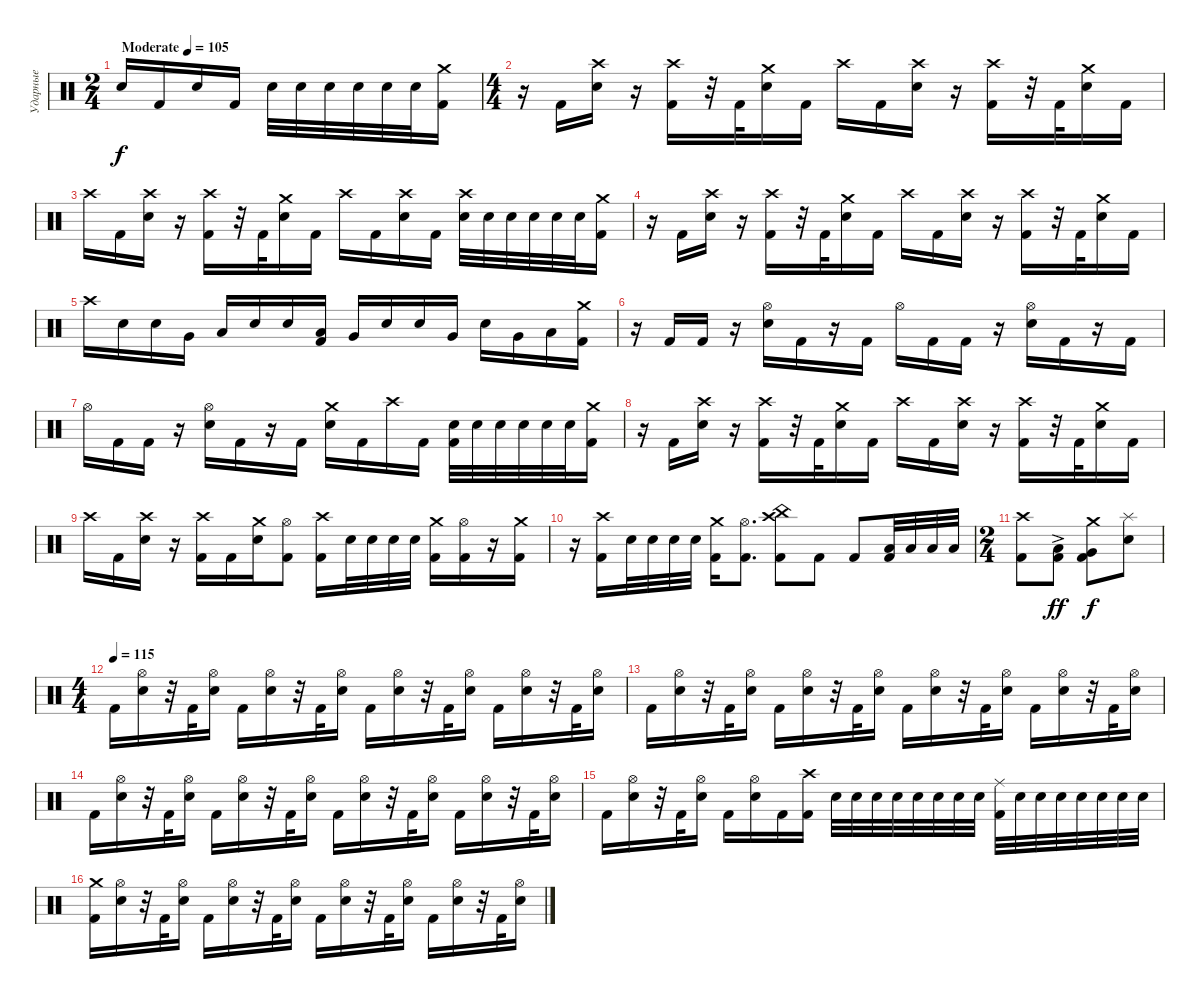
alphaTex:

\track ("Ударные" "Ударные") {instrument percussion}
\staff {score}
\articulation defaults
\ts (2 4)
\tempo (105 "Moderate")
\clef neutral
\ks c "Electric Snare (hit)".16{dy f} "Kick (hit) 2".16 "Electric Snare (hit)".16 "Kick (hit) 2".16 "Electric Snare (hit)".32 "Electric Snare (hit)".32 "Electric Snare (hit)".32 "Electric Snare (hit)".32 "Electric Snare (hit)".32 "Electric Snare (hit)".32
("Crash medium (hit)" "Kick (hit) 2").16 |
\ts (4 4)
r.16 "Kick (hit) 2".16 ("Crash high (hit)" "Electric Snare (hit)").16 r.16 ("Crash high (hit)" "Kick (hit) 2").16 r.32 "Kick (hit) 2".32 ("Crash medium (hit)" "Electric Snare (hit)").16 "Kick (hit) 2".16 "Crash high (hit)".16 "Kick (hit) 2".16 ("Crash high (hit)" "Electric Snare (hit)").16 r.16 ("Crash high (hit)" "Kick (hit) 2").16 r.32 "Kick (hit) 2".32 ("Crash medium (hit)" "Electric Snare (hit)").16 "Kick (hit) 2".16 |
"Crash high (hit)".16 "Kick (hit) 2".16 ("Crash high (hit)" "Electric Snare (hit)").16 r.16 ("Crash high (hit)" "Kick (hit) 2").16 r.32 "Kick (hit) 2".32 ("Crash medium (hit)" "Electric Snare (hit)").16 "Kick (hit) 2".16 "Crash high (hit)".16 "Kick (hit) 2".16 ("Crash high (hit)" "Electric Snare (hit)").16 "Kick (hit) 2".16 ("Crash high (hit)" "Electric Snare (hit)").32 "Electric Snare (hit)".32 "Electric Snare (hit)".32 "Electric Snare (hit)".32 "Electric Snare (hit)".32 "Electric Snare (hit)".32 ("Crash medium (hit)" "Kick (hit) 2").16 |
r.16 "Kick (hit) 2".16 ("Crash high (hit)" "Electric Snare (hit)").16 r.16 ("Crash high (hit)" "Kick (hit) 2").16 r.32 "Kick (hit) 2".32 ("Crash medium (hit)" "Electric Snare (hit)").16 "Kick (hit) 2".16 "Crash high (hit)".16 "Kick (hit) 2".16 ("Crash high (hit)" "Electric Snare (hit)").16 r.16 ("Crash high (hit)" "Kick (hit) 2").16 r.32 "Kick (hit) 2".32 ("Crash medium (hit)" "Electric Snare (hit)").16 "Kick (hit) 2".16 |
"Crash high (hit)".16 "Electric Snare (hit)".16 "Electric Snare (hit)".16 "Very Low Tom (hit)".16 "Low Tom (hit)".16 "Electric Snare (hit)".16 "Electric Snare (hit)".16 ("Low Floor Tom (hit)" "Kick (hit) 2").16 "Very Low Tom (hit)".16 "Electric Snare (hit)".16 "Electric Snare (hit)".16 "Very Low Tom (hit)".16 "Electric Snare (hit)".16 "Very Low Tom (hit)".16 "Low Floor Tom (hit)".16 ("Crash medium (hit)" "Kick (hit) 2").16 |
r.16 "Kick (hit) 2".16 "Kick (hit) 2".16 r.16 ("Hi-Hat (open)" "Electric Snare (hit)").16 "Kick (hit) 2".16 r.16 "Kick (hit) 2".16 "Hi-Hat (open)".16 "Kick (hit) 2".16 "Kick (hit) 2".16 r.16 ("Hi-Hat (open)" "Electric Snare (hit)").16 "Kick (hit) 2".16 r.16 "Kick (hit) 2".16 |
"Hi-Hat (open)".16 "Kick (hit) 2".16 "Kick (hit) 2".16 r.16 ("Hi-Hat (open)" "Electric Snare (hit)").16 "Kick (hit) 2".16 r.16 "Kick (hit) 2".16 ("Crash medium (hit)" "Electric Snare (hit)").16 "Kick (hit) 2".16 "Crash high (hit)".16 "Kick (hit) 2".16 ("Electric Snare (hit)" "Kick (hit) 2").32 "Electric Snare (hit)".32 "Electric Snare (hit)".32 "Electric Snare (hit)".32 "Electric Snare (hit)".32 "Electric Snare (hit)".32 ("Crash medium (hit)" "Kick (hit) 2").16 |
r.16 "Kick (hit) 2".16 ("Crash high (hit)" "Electric Snare (hit)").16 r.16 ("Crash high (hit)" "Kick (hit) 2").16 r.32 "Kick (hit) 2".32 ("Crash medium (hit)" "Electric Snare (hit)").16 "Kick (hit) 2".16 "Crash high (hit)".16 "Kick (hit) 2".16 ("Crash high (hit)" "Electric Snare (hit)").16 r.16 ("Crash high (hit)" "Kick (hit) 2").16 r.32 "Kick (hit) 2".32 ("Crash medium (hit)" "Electric Snare (hit)").16 "Kick (hit) 2".16 |
"Crash high (hit)".16 "Kick (hit) 2".16 ("Crash high (hit)" "Electric Snare (hit)").16 r.16 ("Crash high (hit)" "Kick (hit) 2").16 "Kick (hit) 2".16 ("Crash medium (hit)" "Electric Snare (hit)").16 ("Hi-Hat (open)" "Kick (hit) 2").8 ("Crash high (hit)" "Kick (hit) 2").16 "Electric Snare (hit)".32 "Electric Snare (hit)".32 "Electric Snare (hit)".32 "Electric Snare (hit)".32 ("Crash medium (hit)" "Kick (hit) 2").16 ("Hi-Hat (open)" "Kick (hit) 2").16 r.16 ("Crash medium (hit)" "Kick (hit) 2").16 |
r.16 ("Crash high (hit)" "Kick (hit) 2").16 "Electric Snare (hit)".32 "Electric Snare (hit)".32 "Electric Snare (hit)".32 "Electric Snare (hit)".32 ("Crash medium (hit)" "Kick (hit) 2").16 ("Hi-Hat (open)" "Kick (hit) 2").8{d} ("Crash high (hit)" "China (hit)" "Kick (hit) 2").8 "Kick (hit) 2".8 "Kick (hit) 2".8 ("Low Tom (hit)" "Kick (hit) 2").32 "Low Tom (hit)".32 "Low Tom (hit)".32 "Low Tom (hit)".32 |
\ts (2 4)
("Crash high (hit)" "Kick (hit) 2").8 ("Low Floor Tom (hit)"{ac} "Kick (hit) 2").8{dy ff} ("Crash medium (hit)" "Very Low Tom (hit)" "Kick (hit) 2").8{dy f} ("Splash (hit)" "Electric Snare (hit)").8 |
\ts (4 4)
\tempo (115)
"Kick (hit) 2".16 ("Hi-Hat (open)" "Electric Snare (hit)").16 r.32 "Kick (hit) 2".32 ("Hi-Hat (open)" "Electric Snare (hit)").16 "Kick (hit) 2".16 ("Hi-Hat (open)" "Electric Snare (hit)").16 r.32 "Kick (hit) 2".32 ("Hi-Hat (open)" "Electric Snare (hit)").16 "Kick (hit) 2".16 ("Hi-Hat (open)" "Electric Snare (hit)").16 r.32 "Kick (hit) 2".32 ("Hi-Hat (open)" "Electric Snare (hit)").16 "Kick (hit) 2".16 ("Hi-Hat (open)" "Electric Snare (hit)").16 r.32 "Kick (hit) 2".32 ("Hi-Hat (open)" "Electric Snare (hit)").16 |
"Kick (hit) 2".16 ("Hi-Hat (open)" "Electric Snare (hit)").16 r.32 "Kick (hit) 2".32 ("Hi-Hat (open)" "Electric Snare (hit)").16 "Kick (hit) 2".16 ("Hi-Hat (open)" "Electric Snare (hit)").16 r.32 "Kick (hit) 2".32 ("Hi-Hat (open)" "Electric Snare (hit)").16 "Kick (hit) 2".16 ("Hi-Hat (open)" "Electric Snare (hit)").16 r.32 "Kick (hit) 2".32 ("Hi-Hat (open)" "Electric Snare (hit)").16 "Kick (hit) 2".16 ("Hi-Hat (open)" "Electric Snare (hit)").16 r.32 "Kick (hit) 2".32 ("Hi-Hat (open)" "Electric Snare (hit)").16 |
"Kick (hit) 2".16 ("Hi-Hat (open)" "Electric Snare (hit)").16 r.32 "Kick (hit) 2".32 ("Hi-Hat (open)" "Electric Snare (hit)").16 "Kick (hit) 2".16 ("Hi-Hat (open)" "Electric Snare (hit)").16 r.32 "Kick (hit) 2".32 ("Hi-Hat (open)" "Electric Snare (hit)").16 "Kick (hit) 2".16 ("Hi-Hat (open)" "Electric Snare (hit)").16 r.32 "Kick (hit) 2".32 ("Hi-Hat (open)" "Electric Snare (hit)").16 "Kick (hit) 2".16 ("Hi-Hat (open)" "Electric Snare (hit)").16 r.32 "Kick (hit) 2".32 ("Hi-Hat (open)" "Electric Snare (hit)").16 |
"Kick (hit) 2".16 ("Hi-Hat (open)" "Electric Snare (hit)").16 r.32 "Kick (hit) 2".32 ("Hi-Hat (open)" "Electric Snare (hit)").16 "Kick (hit) 2".16 ("Hi-Hat (open)" "Electric Snare (hit)").16 "Kick (hit) 2".16 ("Crash high (hit)" "Kick (hit) 2").16 "Electric Snare (hit)".32 "Electric Snare (hit)".32 "Electric Snare (hit)".32 "Electric Snare (hit)".32 "Electric Snare (hit)".32 "Electric Snare (hit)".32 "Electric Snare (hit)".32 "Electric Snare (hit)".32 ("Ride (middle)" "Kick (hit) 2").32 "Electric Snare (hit)".32 "Electric Snare (hit)".32 "Electric Snare (hit)".32 "Electric Snare (hit)".32 "Electric Snare (hit)".32 "Electric Snare (hit)".32 "Electric Snare (hit)".32 |
("Crash medium (hit)" "Kick (hit) 2").16 ("Hi-Hat (open)" "Electric Snare (hit)").16 r.32 "Kick (hit) 2".32 ("Hi-Hat (open)" "Electric Snare (hit)").16 "Kick (hit) 2".16 ("Hi-Hat (open)" "Electric Snare (hit)").16 r.32 "Kick (hit) 2".32 ("Hi-Hat (open)" "Electric Snare (hit)").16 "Kick (hit) 2".16 ("Hi-Hat (open)" "Electric Snare (hit)").16 r.32 "Kick (hit) 2".32 ("Hi-Hat (open)" "Electric Snare (hit)").16 "Kick (hit) 2".16 ("Hi-Hat (open)" "Electric Snare (hit)").16 r.32 "Kick (hit) 2".32 ("Hi-Hat (open)" "Electric Snare (hit)").16
